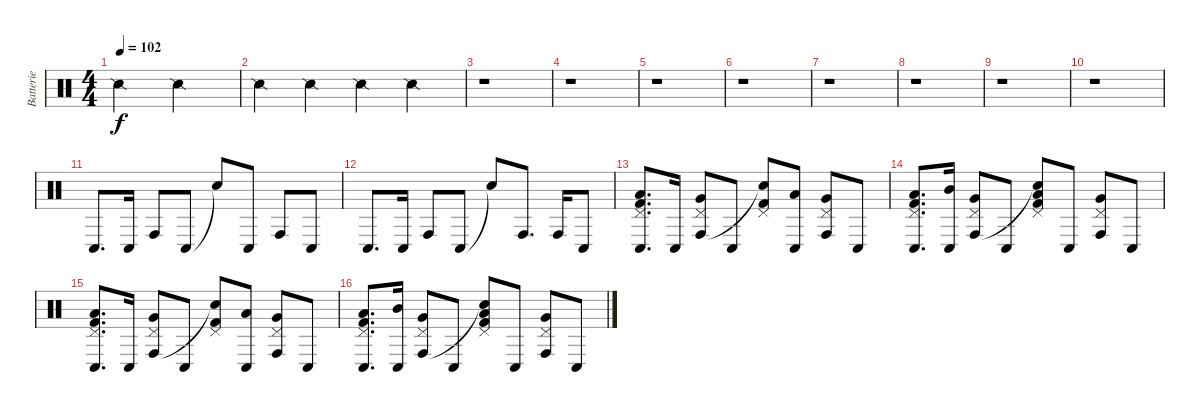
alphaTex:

\track ("Batterie" "Batterie") {instrument percussion}
\staff {score}
\articulation defaults
\ts (4 4)
\tempo 102
\clef neutral
\ks c "Snare (side stick) 2".2{dy f} "Snare (side stick) 2".2
|
"Snare (side stick) 2".4 "Snare (side stick) 2".4 "Snare (side stick) 2".4 "Snare (side stick) 2".4 |
r.1 |
r.1 |
r.1 |
r.1 |
r.1 |
r.1 |
r.1 |
r.1 |
"Conga low (hit)".8{d} "Conga low (hit)".16 "Conga high (hit)".8 "Conga low (hit)".8 "Snare (hit)"{t}.8 "Conga low (hit)".8 "Conga high (hit)".8 "Conga low (hit)".8 |
"Conga low (hit)".8{d} "Conga low (hit)".16 "Conga high (hit)".8 "Conga low (hit)".8 "Snare (hit)"{t}.8 "Conga high (hit)".8{d} "Conga high (hit)".16 "Conga low (hit)".8 |
("Pedal Hi-Hat (hit)" "Conga low (hit)" "Low Tom (hit)" "Kick (hit) 2").8{d} "Conga low (hit)".16 ("Pedal Hi-Hat (hit)" "Conga high (hit)" "Very Low Tom (hit)").8 "Conga low (hit)".8 ("Pedal Hi-Hat (hit)" "Snare (hit)"{t} "Kick (hit) 2").8 ("Conga low (hit)" "Low Floor Tom (hit)").8 ("Pedal Hi-Hat (hit)" "Conga high (hit)" "Very Low Tom (hit)").8 "Conga low (hit)".8 |
("Pedal Hi-Hat (hit)" "Conga low (hit)" "Low Tom (hit)" "Kick (hit) 2").8{d} ("Conga low (hit)" "Mid Tom (hit)").16 ("Pedal Hi-Hat (hit)" "Conga high (hit)" "Very Low Tom (hit)").8 "Conga low (hit)".8 ("Pedal Hi-Hat (hit)" "Snare (hit)"{t} "Low Floor Tom (hit)" "Kick (hit) 2").8 "Conga low (hit)".8 ("Pedal Hi-Hat (hit)" "Conga high (hit)" "Very Low Tom (hit)").8 "Conga low (hit)".8 |
("Pedal Hi-Hat (hit)" "Conga low (hit)" "Low Tom (hit)" "Kick (hit) 2").8{d} "Conga low (hit)".16 ("Pedal Hi-Hat (hit)" "Conga high (hit)" "Very Low Tom (hit)").8 "Conga low (hit)".8 ("Pedal Hi-Hat (hit)" "Snare (hit)"{t} "Kick (hit) 2").8 ("Conga low (hit)" "Low Floor Tom (hit)").8 ("Pedal Hi-Hat (hit)" "Conga high (hit)" "Very Low Tom (hit)").8 "Conga low (hit)".8 |
("Pedal Hi-Hat (hit)" "Conga low (hit)" "Low Tom (hit)" "Kick (hit) 2").8{d} ("Conga low (hit)" "Mid Tom (hit)").16 ("Pedal Hi-Hat (hit)" "Conga high (hit)" "Very Low Tom (hit)").8 "Conga low (hit)".8 ("Pedal Hi-Hat (hit)" "Snare (hit)"{t} "Low Floor Tom (hit)" "Kick (hit) 2").8 "Conga low (hit)".8 ("Pedal Hi-Hat (hit)" "Conga high (hit)" "Very Low Tom (hit)").8 "Conga low (hit)".8
